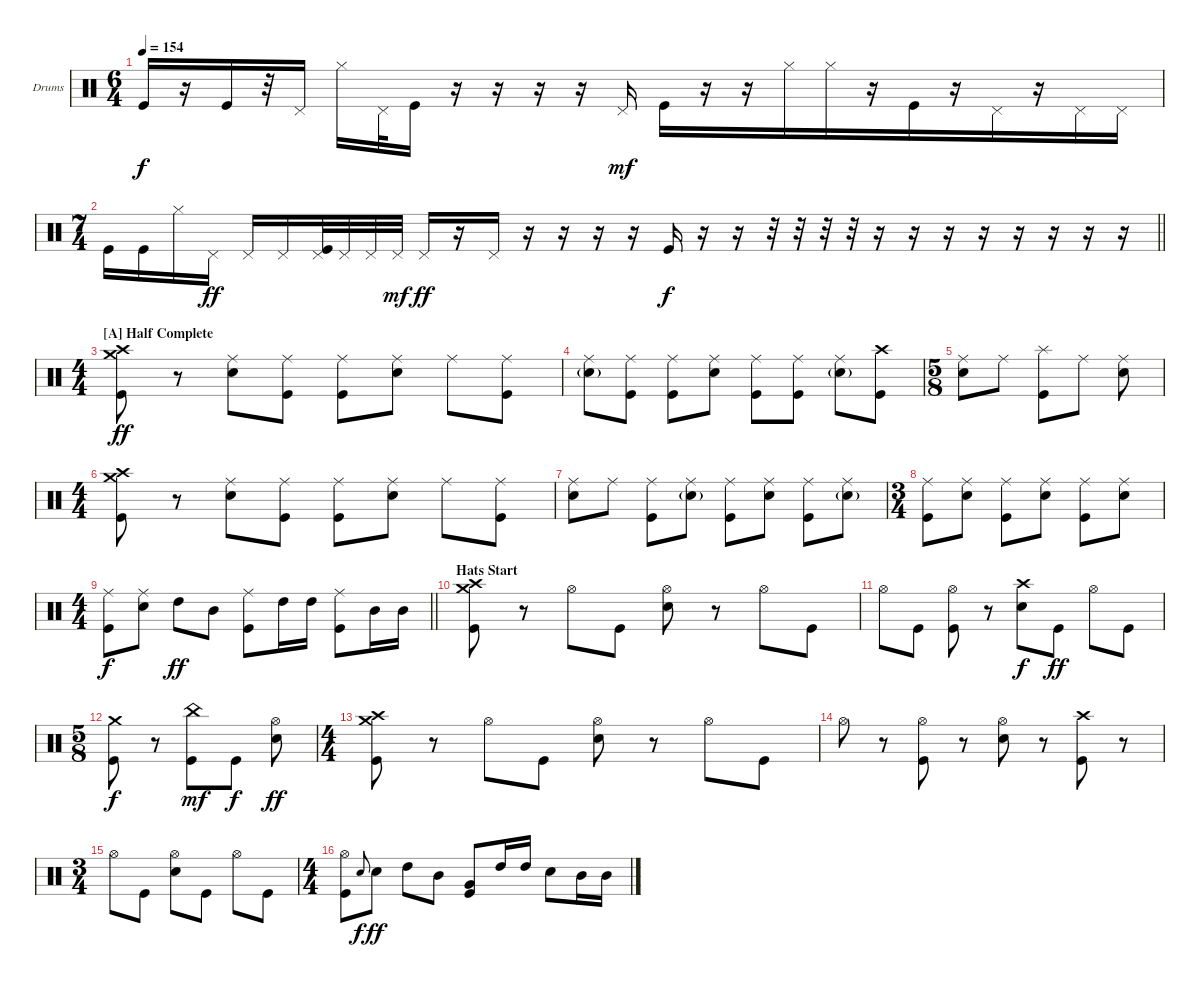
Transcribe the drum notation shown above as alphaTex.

\bracketExtendMode groupsimilarinstruments
\firstSystemTrackNameOrientation horizontal
\otherSystemsTrackNameOrientation horizontal
\track ("Navene Koperweis" "Drums") {instrument percussion}
\staff {score}
\articulation defaults
\ts (6 4)
\beaming (8 2 2 2 6)
\tempo 154
\clef neutral
\ks c "Kick (hit)".16{dy f}
r.16 "Kick (hit)".16 r.32 "Pedal Hi-Hat (hit)".16 "Hi-Hat (closed)".16 "Pedal Hi-Hat (hit)".32 "Kick (hit)".16 r.16 r.16 r.16 r.16 "Pedal Hi-Hat (hit)".16{dy mf} "Kick (hit)".16 r.16 r.16 "Hi-Hat (closed)".16 "Hi-Hat (closed)".16 r.16 "Kick (hit)".16 r.16 "Pedal Hi-Hat (hit)".16 r.16 "Pedal Hi-Hat (hit)".16 "Pedal Hi-Hat (hit)".16 |
\ts (7 4)
\beaming (8 2 2 2 8)
\barLineRight lightlight "Kick (hit)".16 "Kick (hit)".16 "Hi-Hat (closed)".16 "Pedal Hi-Hat (hit)".16{dy ff} "Pedal Hi-Hat (hit)".16 "Pedal Hi-Hat (hit)".16
("Pedal Hi-Hat (hit)" "Kick (hit)").32 "Pedal Hi-Hat (hit)".32 "Pedal Hi-Hat (hit)".32 "Pedal Hi-Hat (hit)".32{dy mf} "Pedal Hi-Hat (hit)".16{dy ff} r.16 "Pedal Hi-Hat (hit)".16 r.16 r.16 r.16 r.16 "Kick (hit)".16{dy f} r.16 r.16 r.32 r.32 r.32 r.32 r.16 r.16 r.16 r.16 r.16 r.16 r.16 r.16 |
\ts (4 4)
\beaming (8 2 2 2 2)
\section ("A" "Half Complete")
("Crash medium (hit)" "Crash high (hit)" "Kick (hit)").8{dy ff} r.8 ("Ride (middle)" "Snare (hit) 2").8 ("Ride (middle)" "Kick (hit)").8 ("Ride (middle)" "Kick (hit)").8 ("Ride (middle)" "Snare (hit) 2").8 "Ride (middle)".8 ("Ride (middle)" "Kick (hit)").8 |
("Ride (middle)" "Snare (hit) 2"{g}).8 ("Ride (middle)" "Kick (hit)").8 ("Ride (middle)" "Kick (hit)").8 ("Ride (middle)" "Snare (hit) 2").8 ("Ride (middle)" "Kick (hit)").8 ("Ride (middle)" "Kick (hit)").8 ("Ride (middle)" "Snare (hit) 2"{g}).8 ("Crash high (hit)" "Kick (hit)").8 |
\ts (5 8)
\beaming (8 2 2 2 2)
("Ride (middle)" "Snare (hit) 2").8 "Ride (middle)".8 ("Splash (hit)" "Kick (hit)").8 "Ride (middle)".8 ("Ride (middle)" "Snare (hit) 2").8 |
\ts (4 4)
\beaming (8 2 2 2 2)
("Crash medium (hit)" "Crash high (hit)" "Kick (hit)").8 r.8 ("Ride (middle)" "Snare (hit) 2").8 ("Ride (middle)" "Kick (hit)").8 ("Ride (middle)" "Kick (hit)").8 ("Ride (middle)" "Snare (hit) 2").8 "Ride (middle)".8 ("Ride (middle)" "Kick (hit)").8 |
("Ride (middle)" "Snare (hit) 2").8 "Ride (middle)".8 ("Ride (middle)" "Kick (hit)").8 ("Ride (middle)" "Snare (hit) 2"{g}).8 ("Ride (middle)" "Kick (hit)").8 ("Ride (middle)" "Snare (hit) 2").8 ("Ride (middle)" "Kick (hit)").8 ("Ride (middle)" "Snare (hit) 2"{g}).8 |
\ts (3 4)
\beaming (8 2 2 2 2)
("Ride (middle)" "Kick (hit)").8 ("Ride (middle)" "Snare (hit) 2").8 ("Ride (middle)" "Kick (hit)").8 ("Ride (middle)" "Snare (hit) 2").8 ("Ride (middle)" "Kick (hit)").8 ("Ride (middle)" "Snare (hit) 2").8 |
\ts (4 4)
\beaming (8 2 2 2 2)
\barLineRight lightlight
("Ride (middle)" "Kick (hit)").8{dy f} ("Ride (middle)" "Snare (hit) 2").8 "High Tom (hit)".8{dy ff} "Mid Tom (hit)".8 ("Ride (middle)" "Kick (hit)").8 "High Tom (hit)".16 "High Tom (hit)".16 ("Ride (middle)" "Kick (hit)").8 "Mid Tom (hit)".16 "Mid Tom (hit)".16 |
\section ("" "Hats Start")
("Crash medium (hit)" "Crash high (hit)" "Kick (hit)").8 r.8 "Hi-Hat (open)".8 "Kick (hit)".8 ("Hi-Hat (open)" "Snare (hit) 2").8 r.8 "Hi-Hat (open)".8 "Kick (hit)".8 |
"Hi-Hat (open)".8 "Kick (hit)".8 ("Hi-Hat (open)" "Kick (hit)").8 r.8 ("Crash high (hit)" "Snare (hit) 2").8{dy f} "Kick (hit)".8{dy ff} "Hi-Hat (open)".8 "Kick (hit)".8 |
\ts (5 8)
\beaming (8 2 2 2 2)
("Crash medium (hit)" "Kick (hit)").8{dy f} r.8 ("China (hit)" "Kick (hit)").8{dy mf} "Kick (hit)".8{dy f} ("Hi-Hat (open)" "Snare (hit) 2").8{dy ff} |
\ts (4 4)
\beaming (8 2 2 2 2)
("Crash medium (hit)" "Crash high (hit)" "Kick (hit)").8 r.8 "Hi-Hat (open)".8 "Kick (hit)".8 ("Hi-Hat (open)" "Snare (hit) 2").8 r.8 "Hi-Hat (open)".8 "Kick (hit)".8 |
"Hi-Hat (open)".8 r.8 ("Hi-Hat (open)" "Kick (hit)").8 r.8 ("Hi-Hat (open)" "Snare (hit) 2").8 r.8 ("Crash high (hit)" "Kick (hit)").8 r.8 |
\ts (3 4)
\beaming (8 2 2 2 2)
"Hi-Hat (open)".8 "Kick (hit)".8 ("Hi-Hat (open)" "Snare (hit) 2").8 "Kick (hit)".8 "Hi-Hat (open)".8 "Kick (hit)".8 |
\ts (4 4)
\beaming (8 2 2 2 2)
("Hi-Hat (open)" "Kick (hit)").8 "Snare (hit) 2".8{gr onbeat dy f} "Snare (hit) 2".8{dy ff} "High Tom (hit)".8 "Mid Tom (hit)".8 ("Very Low Tom (hit)" "Kick (hit)").8 "High Tom (hit)".16 "High Tom (hit)".16 "Snare (hit) 2".8 "Mid Tom (hit)".16 "Mid Tom (hit)".16
